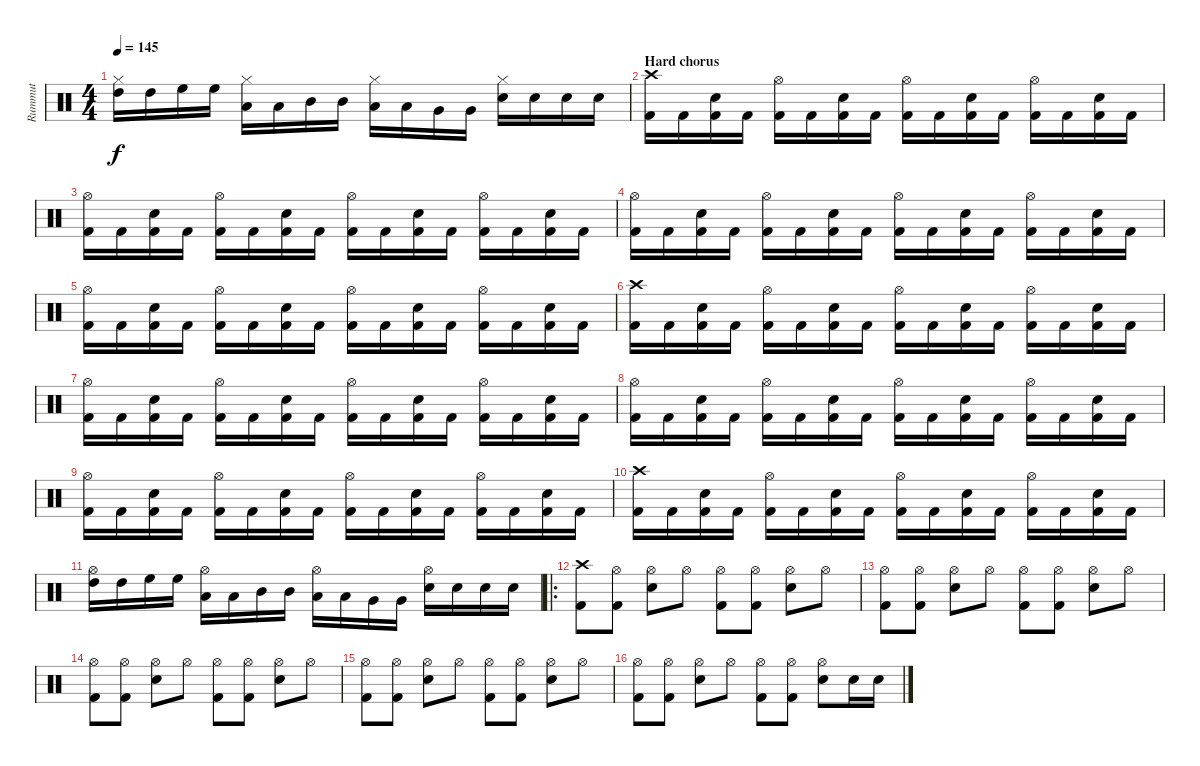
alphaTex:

\track ("Rummut" "Rummut") {instrument percussion}
\staff {score}
\articulation defaults
\ts (4 4)
\tempo 145
\clef neutral
\ks c
("Hi-Hat (closed)" "High Tom (hit)").16{dy f} "High Tom (hit)".16 "High Floor Tom (hit)".16 "High Floor Tom (hit)".16 ("Hi-Hat (closed)" "Low Tom (hit)").16 "Low Tom (hit)".16 "Mid Tom (hit)".16 "Mid Tom (hit)".16 ("Hi-Hat (closed)" "Low Floor Tom (hit)").16 "Low Floor Tom (hit)".16 "Very Low Tom (hit)".16 "Very Low Tom (hit)".16 ("Hi-Hat (closed)" "Electric Snare (hit)").16 "Electric Snare (hit)".16 "Snare (hit) 2".16 "Snare (hit) 2".16 |
\section ("" "Hard chorus")
("Kick (hit) 2" "Crash high (hit)").16 "Kick (hit) 2".16 ("Kick (hit) 2" "Electric Snare (hit)").16 "Kick (hit) 2".16 ("Kick (hit) 2" "Hi-Hat (open)").16 "Kick (hit) 2".16 ("Kick (hit) 2" "Electric Snare (hit)").16 "Kick (hit) 2".16 ("Kick (hit) 2" "Hi-Hat (open)").16 "Kick (hit) 2".16 ("Kick (hit) 2" "Electric Snare (hit)").16 "Kick (hit) 2".16 ("Kick (hit) 2" "Hi-Hat (open)").16 "Kick (hit) 2".16 ("Kick (hit) 2" "Electric Snare (hit)").16 "Kick (hit) 2".16 |
("Kick (hit) 2" "Hi-Hat (open)").16 "Kick (hit) 2".16 ("Kick (hit) 2" "Electric Snare (hit)").16 "Kick (hit) 2".16 ("Kick (hit) 2" "Hi-Hat (open)").16 "Kick (hit) 2".16 ("Kick (hit) 2" "Electric Snare (hit)").16 "Kick (hit) 2".16 ("Kick (hit) 2" "Hi-Hat (open)").16 "Kick (hit) 2".16 ("Kick (hit) 2" "Electric Snare (hit)").16 "Kick (hit) 2".16 ("Kick (hit) 2" "Hi-Hat (open)").16 "Kick (hit) 2".16 ("Kick (hit) 2" "Electric Snare (hit)").16 "Kick (hit) 2".16 |
("Kick (hit) 2" "Hi-Hat (open)").16 "Kick (hit) 2".16 ("Kick (hit) 2" "Electric Snare (hit)").16 "Kick (hit) 2".16 ("Kick (hit) 2" "Hi-Hat (open)").16 "Kick (hit) 2".16 ("Kick (hit) 2" "Electric Snare (hit)").16 "Kick (hit) 2".16 ("Kick (hit) 2" "Hi-Hat (open)").16 "Kick (hit) 2".16 ("Kick (hit) 2" "Electric Snare (hit)").16 "Kick (hit) 2".16 ("Kick (hit) 2" "Hi-Hat (open)").16 "Kick (hit) 2".16 ("Kick (hit) 2" "Electric Snare (hit)").16 "Kick (hit) 2".16 |
("Kick (hit) 2" "Hi-Hat (open)").16 "Kick (hit) 2".16 ("Kick (hit) 2" "Electric Snare (hit)").16 "Kick (hit) 2".16 ("Kick (hit) 2" "Hi-Hat (open)").16 "Kick (hit) 2".16 ("Kick (hit) 2" "Electric Snare (hit)").16 "Kick (hit) 2".16 ("Kick (hit) 2" "Hi-Hat (open)").16 "Kick (hit) 2".16 ("Kick (hit) 2" "Electric Snare (hit)").16 "Kick (hit) 2".16 ("Kick (hit) 2" "Hi-Hat (open)").16 "Kick (hit) 2".16 ("Kick (hit) 2" "Electric Snare (hit)").16 "Kick (hit) 2".16 |
("Kick (hit) 2" "Crash high (hit)").16 "Kick (hit) 2".16 ("Kick (hit) 2" "Electric Snare (hit)").16 "Kick (hit) 2".16 ("Kick (hit) 2" "Hi-Hat (open)").16 "Kick (hit) 2".16 ("Kick (hit) 2" "Electric Snare (hit)").16 "Kick (hit) 2".16 ("Kick (hit) 2" "Hi-Hat (open)").16 "Kick (hit) 2".16 ("Kick (hit) 2" "Electric Snare (hit)").16 "Kick (hit) 2".16 ("Kick (hit) 2" "Hi-Hat (open)").16 "Kick (hit) 2".16 ("Kick (hit) 2" "Electric Snare (hit)").16 "Kick (hit) 2".16 |
("Kick (hit) 2" "Hi-Hat (open)").16 "Kick (hit) 2".16 ("Kick (hit) 2" "Electric Snare (hit)").16 "Kick (hit) 2".16 ("Kick (hit) 2" "Hi-Hat (open)").16 "Kick (hit) 2".16 ("Kick (hit) 2" "Electric Snare (hit)").16 "Kick (hit) 2".16 ("Kick (hit) 2" "Hi-Hat (open)").16 "Kick (hit) 2".16 ("Kick (hit) 2" "Electric Snare (hit)").16 "Kick (hit) 2".16 ("Kick (hit) 2" "Hi-Hat (open)").16 "Kick (hit) 2".16 ("Kick (hit) 2" "Electric Snare (hit)").16 "Kick (hit) 2".16 |
("Kick (hit) 2" "Hi-Hat (open)").16 "Kick (hit) 2".16 ("Kick (hit) 2" "Electric Snare (hit)").16 "Kick (hit) 2".16 ("Kick (hit) 2" "Hi-Hat (open)").16 "Kick (hit) 2".16 ("Kick (hit) 2" "Electric Snare (hit)").16 "Kick (hit) 2".16 ("Kick (hit) 2" "Hi-Hat (open)").16 "Kick (hit) 2".16 ("Kick (hit) 2" "Electric Snare (hit)").16 "Kick (hit) 2".16 ("Kick (hit) 2" "Hi-Hat (open)").16 "Kick (hit) 2".16 ("Kick (hit) 2" "Electric Snare (hit)").16 "Kick (hit) 2".16 |
("Kick (hit) 2" "Hi-Hat (open)").16 "Kick (hit) 2".16 ("Kick (hit) 2" "Electric Snare (hit)").16 "Kick (hit) 2".16 ("Kick (hit) 2" "Hi-Hat (open)").16 "Kick (hit) 2".16 ("Kick (hit) 2" "Electric Snare (hit)").16 "Kick (hit) 2".16 ("Kick (hit) 2" "Hi-Hat (open)").16 "Kick (hit) 2".16 ("Kick (hit) 2" "Electric Snare (hit)").16 "Kick (hit) 2".16 ("Kick (hit) 2" "Hi-Hat (open)").16 "Kick (hit) 2".16 ("Kick (hit) 2" "Electric Snare (hit)").16 "Kick (hit) 2".16 |
("Kick (hit) 2" "Crash high (hit)").16 "Kick (hit) 2".16 ("Kick (hit) 2" "Electric Snare (hit)").16 "Kick (hit) 2".16 ("Kick (hit) 2" "Hi-Hat (open)").16 "Kick (hit) 2".16 ("Kick (hit) 2" "Electric Snare (hit)").16 "Kick (hit) 2".16 ("Kick (hit) 2" "Hi-Hat (open)").16 "Kick (hit) 2".16 ("Kick (hit) 2" "Electric Snare (hit)").16 "Kick (hit) 2".16 ("Kick (hit) 2" "Hi-Hat (open)").16 "Kick (hit) 2".16 ("Kick (hit) 2" "Electric Snare (hit)").16 "Kick (hit) 2".16 |
("Hi-Hat (open)" "High Tom (hit)").16 "High Tom (hit)".16 "High Floor Tom (hit)".16 "High Floor Tom (hit)".16 ("Hi-Hat (open)" "Low Tom (hit)").16 "Low Tom (hit)".16 "Mid Tom (hit)".16 "Mid Tom (hit)".16 ("Hi-Hat (open)" "Low Floor Tom (hit)").16 "Low Floor Tom (hit)".16 "Very Low Tom (hit)".16 "Very Low Tom (hit)".16 ("Hi-Hat (open)" "Snare (hit) 2").16 "Snare (hit) 2".16 "Electric Snare (hit)".16 "Electric Snare (hit)".16 |
\ro
("Crash high (hit)" "Kick (hit) 2").8 ("Hi-Hat (open)" "Kick (hit) 2").8 ("Hi-Hat (open)" "Electric Snare (hit)").8 "Hi-Hat (open)".8 ("Hi-Hat (open)" "Kick (hit) 2").8 ("Hi-Hat (open)" "Kick (hit) 2").8 ("Hi-Hat (open)" "Electric Snare (hit)").8 "Hi-Hat (open)".8 |
("Hi-Hat (open)" "Kick (hit) 2").8 ("Hi-Hat (open)" "Kick (hit) 2").8 ("Hi-Hat (open)" "Electric Snare (hit)").8 "Hi-Hat (open)".8 ("Hi-Hat (open)" "Kick (hit) 2").8 ("Hi-Hat (open)" "Kick (hit) 2").8 ("Hi-Hat (open)" "Electric Snare (hit)").8 "Hi-Hat (open)".8 |
("Hi-Hat (open)" "Kick (hit) 2").8 ("Hi-Hat (open)" "Kick (hit) 2").8 ("Hi-Hat (open)" "Electric Snare (hit)").8 "Hi-Hat (open)".8 ("Hi-Hat (open)" "Kick (hit) 2").8 ("Hi-Hat (open)" "Kick (hit) 2").8 ("Hi-Hat (open)" "Electric Snare (hit)").8 "Hi-Hat (open)".8 |
("Hi-Hat (open)" "Kick (hit) 2").8 ("Hi-Hat (open)" "Kick (hit) 2").8 ("Hi-Hat (open)" "Electric Snare (hit)").8 "Hi-Hat (open)".8 ("Hi-Hat (open)" "Kick (hit) 2").8 ("Hi-Hat (open)" "Kick (hit) 2").8 ("Hi-Hat (open)" "Electric Snare (hit)").8 "Hi-Hat (open)".8 |
("Hi-Hat (open)" "Kick (hit) 2").8 ("Hi-Hat (open)" "Kick (hit) 2").8 ("Hi-Hat (open)" "Electric Snare (hit)").8 "Hi-Hat (open)".8 ("Hi-Hat (open)" "Kick (hit) 2").8 ("Hi-Hat (open)" "Kick (hit) 2").8 ("Hi-Hat (open)" "Electric Snare (hit)").8 "Electric Snare (hit)".16 "Electric Snare (hit)".16
